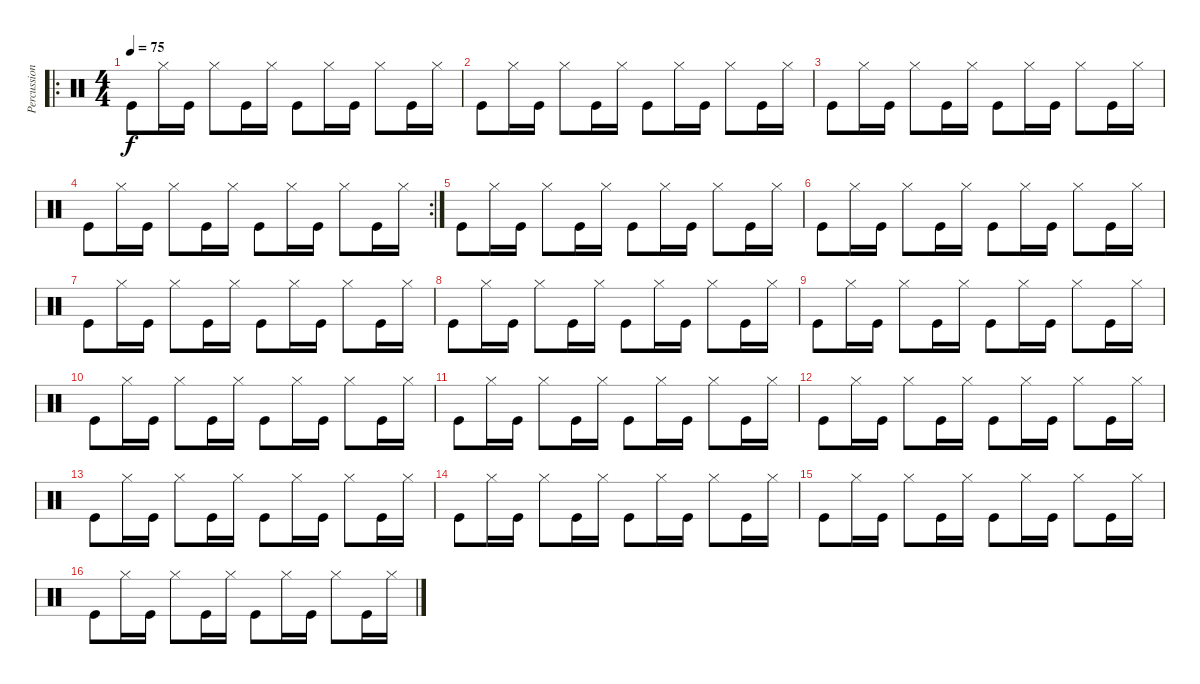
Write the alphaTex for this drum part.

\track ("Percussions" "Percussion") {instrument percussion}
\staff {score}
\articulation defaults
\ro
\ts (4 4)
\tempo 75
\clef neutral
\ks c "Kick (hit)".8{dy f} "Hi-Hat (closed)".16 "Kick (hit)".16 "Hi-Hat (closed)".8 "Kick (hit)".16 "Hi-Hat (closed)".16 "Kick (hit)".8 "Hi-Hat (closed)".16 "Kick (hit)".16 "Hi-Hat (closed)".8 "Kick (hit)".16 "Hi-Hat (closed)".16
|
"Kick (hit)".8 "Hi-Hat (closed)".16 "Kick (hit)".16 "Hi-Hat (closed)".8 "Kick (hit)".16 "Hi-Hat (closed)".16 "Kick (hit)".8 "Hi-Hat (closed)".16 "Kick (hit)".16 "Hi-Hat (closed)".8 "Kick (hit)".16 "Hi-Hat (closed)".16 |
"Kick (hit)".8 "Hi-Hat (closed)".16 "Kick (hit)".16 "Hi-Hat (closed)".8 "Kick (hit)".16 "Hi-Hat (closed)".16 "Kick (hit)".8 "Hi-Hat (closed)".16 "Kick (hit)".16 "Hi-Hat (closed)".8 "Kick (hit)".16 "Hi-Hat (closed)".16 |
\rc 2 "Kick (hit)".8 "Hi-Hat (closed)".16 "Kick (hit)".16 "Hi-Hat (closed)".8 "Kick (hit)".16 "Hi-Hat (closed)".16 "Kick (hit)".8 "Hi-Hat (closed)".16 "Kick (hit)".16 "Hi-Hat (closed)".8 "Kick (hit)".16 "Hi-Hat (closed)".16
|
"Kick (hit)".8 "Hi-Hat (closed)".16 "Kick (hit)".16 "Hi-Hat (closed)".8 "Kick (hit)".16 "Hi-Hat (closed)".16 "Kick (hit)".8 "Hi-Hat (closed)".16 "Kick (hit)".16 "Hi-Hat (closed)".8 "Kick (hit)".16 "Hi-Hat (closed)".16 |
"Kick (hit)".8 "Hi-Hat (closed)".16 "Kick (hit)".16 "Hi-Hat (closed)".8 "Kick (hit)".16 "Hi-Hat (closed)".16 "Kick (hit)".8 "Hi-Hat (closed)".16 "Kick (hit)".16 "Hi-Hat (closed)".8 "Kick (hit)".16 "Hi-Hat (closed)".16 |
"Kick (hit)".8 "Hi-Hat (closed)".16 "Kick (hit)".16 "Hi-Hat (closed)".8 "Kick (hit)".16 "Hi-Hat (closed)".16 "Kick (hit)".8 "Hi-Hat (closed)".16 "Kick (hit)".16 "Hi-Hat (closed)".8 "Kick (hit)".16 "Hi-Hat (closed)".16 |
"Kick (hit)".8 "Hi-Hat (closed)".16 "Kick (hit)".16 "Hi-Hat (closed)".8 "Kick (hit)".16 "Hi-Hat (closed)".16 "Kick (hit)".8 "Hi-Hat (closed)".16 "Kick (hit)".16 "Hi-Hat (closed)".8 "Kick (hit)".16 "Hi-Hat (closed)".16 |
"Kick (hit)".8 "Hi-Hat (closed)".16 "Kick (hit)".16 "Hi-Hat (closed)".8 "Kick (hit)".16 "Hi-Hat (closed)".16 "Kick (hit)".8 "Hi-Hat (closed)".16 "Kick (hit)".16 "Hi-Hat (closed)".8 "Kick (hit)".16 "Hi-Hat (closed)".16 |
"Kick (hit)".8 "Hi-Hat (closed)".16 "Kick (hit)".16 "Hi-Hat (closed)".8 "Kick (hit)".16 "Hi-Hat (closed)".16 "Kick (hit)".8 "Hi-Hat (closed)".16 "Kick (hit)".16 "Hi-Hat (closed)".8 "Kick (hit)".16 "Hi-Hat (closed)".16 |
"Kick (hit)".8 "Hi-Hat (closed)".16 "Kick (hit)".16 "Hi-Hat (closed)".8 "Kick (hit)".16 "Hi-Hat (closed)".16 "Kick (hit)".8 "Hi-Hat (closed)".16 "Kick (hit)".16 "Hi-Hat (closed)".8 "Kick (hit)".16 "Hi-Hat (closed)".16 |
"Kick (hit)".8 "Hi-Hat (closed)".16 "Kick (hit)".16 "Hi-Hat (closed)".8 "Kick (hit)".16 "Hi-Hat (closed)".16 "Kick (hit)".8 "Hi-Hat (closed)".16 "Kick (hit)".16 "Hi-Hat (closed)".8 "Kick (hit)".16 "Hi-Hat (closed)".16 |
"Kick (hit)".8 "Hi-Hat (closed)".16 "Kick (hit)".16 "Hi-Hat (closed)".8 "Kick (hit)".16 "Hi-Hat (closed)".16 "Kick (hit)".8 "Hi-Hat (closed)".16 "Kick (hit)".16 "Hi-Hat (closed)".8 "Kick (hit)".16 "Hi-Hat (closed)".16 |
"Kick (hit)".8 "Hi-Hat (closed)".16 "Kick (hit)".16 "Hi-Hat (closed)".8 "Kick (hit)".16 "Hi-Hat (closed)".16 "Kick (hit)".8 "Hi-Hat (closed)".16 "Kick (hit)".16 "Hi-Hat (closed)".8 "Kick (hit)".16 "Hi-Hat (closed)".16 |
"Kick (hit)".8 "Hi-Hat (closed)".16 "Kick (hit)".16 "Hi-Hat (closed)".8 "Kick (hit)".16 "Hi-Hat (closed)".16 "Kick (hit)".8 "Hi-Hat (closed)".16 "Kick (hit)".16 "Hi-Hat (closed)".8 "Kick (hit)".16 "Hi-Hat (closed)".16 |
"Kick (hit)".8 "Hi-Hat (closed)".16 "Kick (hit)".16 "Hi-Hat (closed)".8 "Kick (hit)".16 "Hi-Hat (closed)".16 "Kick (hit)".8 "Hi-Hat (closed)".16 "Kick (hit)".16 "Hi-Hat (closed)".8 "Kick (hit)".16 "Hi-Hat (closed)".16
